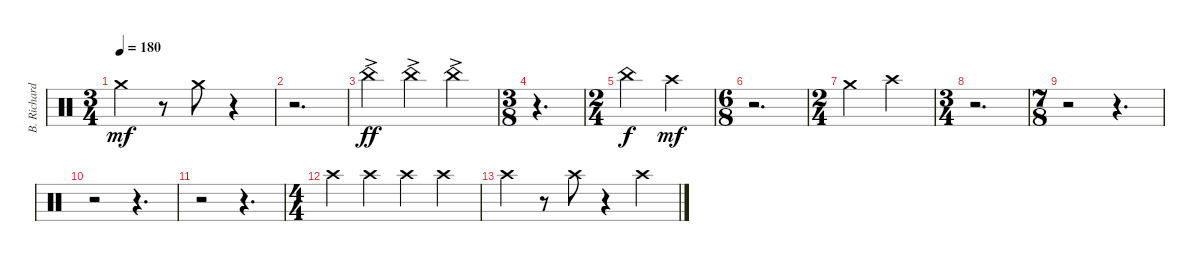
\track ("B. Richardson Drums" "B. Richard") {instrument percussion}
\staff {score}
\articulation defaults
\ts (3 4)
\tempo 180
\clef neutral
\ks c "Crash medium (hit)".4{dy mf}
r.8 "Crash medium (hit)".8 r.4 |
r.2{d} |
"China (hit)"{ac}.4{dy ff} "China (hit)"{ac}.4 "China (hit)"{ac}.4 |
\ts (3 8)
r.4{d} |
\ts (2 4)
"China (hit)".4{dy f} "Crash high (hit)".4{dy mf} |
\ts (6 8)
r.2{d} |
\ts (2 4)
"Crash medium (hit)".4 "Crash high (hit)".4 |
\ts (3 4)
r.2{d} |
\ts (7 8)
r.2 r.4{d} |
r.2 r.4{d} |
r.2 r.4{d} |
\ts (4 4)
"Crash high (hit)".4 "Crash high (hit)".4 "Crash high (hit)".4 "Crash high (hit)".4 |
"Crash high (hit)".4 r.8 "Crash high (hit)".8 r.4 "Crash high (hit)".4
